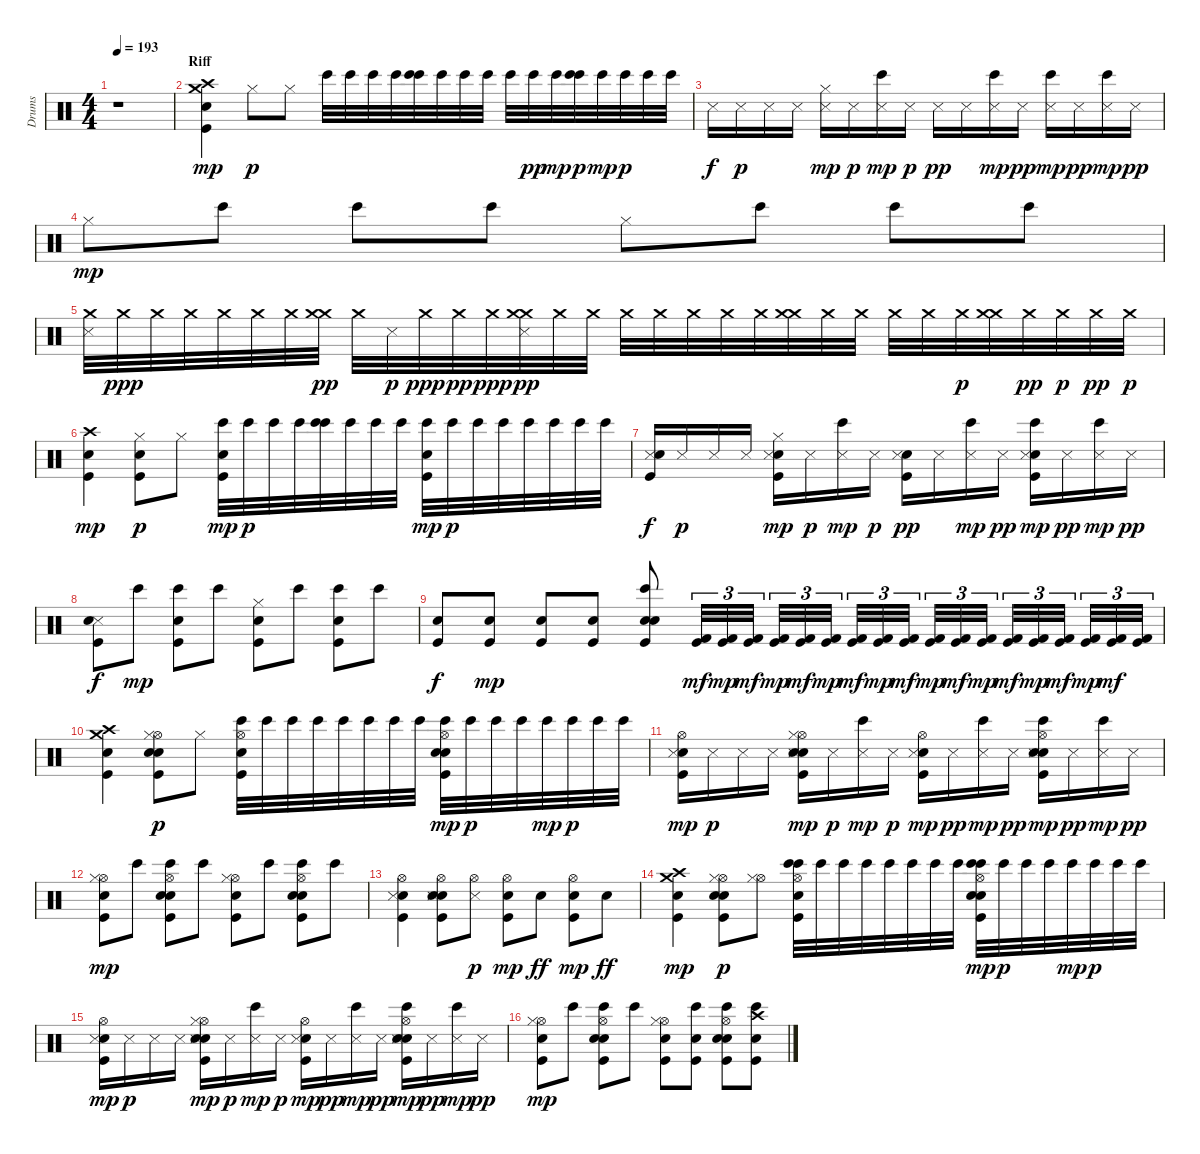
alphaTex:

\track ("Drums" "Drums") {instrument percussion}
\staff {score}
\articulation defaults
\ts (4 4)
\tempo 193
\clef neutral
\ks c
r.1{dy mp} |
\section ("" "Riff")
("Crash high (hit)" "Crash medium (hit)" "Kick (hit)" "Snare (hit) 2").4{balance 8} "Hi-Hat (closed)".8{dy p} "Hi-Hat (closed)".8 "Bongo High (hit)".32 "Bongo High (hit)".32 "Bongo High (hit)".32 "Bongo High (hit)".32 ("Bongo High (hit)" "Bongo High (hit)").32 "Bongo High (hit)".32 "Bongo High (hit)".32 "Bongo High (hit)".32 "Bongo High (hit)".32 "Bongo High (hit)".32{dy pp} "Bongo High (hit)".32{dy mp} ("Bongo High (hit)" "Bongo High (hit)").32{dy p} "Bongo High (hit)".32{dy mp} "Bongo High (hit)".32{dy p} "Bongo High (hit)".32 "Bongo High (hit)".32 |
"Snare (side stick) 3".16{dy f} "Snare (side stick) 3".16{dy p} "Snare (side stick) 3".16 "Snare (side stick) 3".16 ("Snare (side stick) 3" "Hi-Hat (closed)").16{dy mp} "Snare (side stick) 3".16{dy p} ("Snare (side stick) 3" "Bongo High (hit)").16{dy mp} "Snare (side stick) 3".16{dy p} "Snare (side stick) 3".16{dy pp} "Snare (side stick) 3".16 ("Snare (side stick) 3" "Bongo High (hit)").16{dy mp} "Snare (side stick) 3".16{dy pp} ("Snare (side stick) 3" "Bongo High (hit)").16{dy mp} "Snare (side stick) 3".16{dy pp} ("Snare (side stick) 3" "Bongo High (hit)").16{dy mp} "Snare (side stick) 3".16{dy pp} |
"Hi-Hat (closed)".8{dy mp} "Bongo High (hit)".8 "Bongo High (hit)".8 "Bongo High (hit)".8 "Hi-Hat (closed)".8 "Bongo High (hit)".8 "Bongo High (hit)".8 "Bongo High (hit)".8 |
("Snare (side stick) 3" "Crash medium (hit)").32 "Crash medium (hit)".32{dy ppp} "Crash medium (hit)".32 "Crash medium (hit)".32 "Crash medium (hit)".32 "Crash medium (hit)".32 "Crash medium (hit)".32 ("Crash medium (hit)" "Crash medium (hit)").32{dy pp} "Crash medium (hit)".32 "Snare (side stick) 3".32{dy p} "Crash medium (hit)".32{dy ppp} "Crash medium (hit)".32{dy pp} "Crash medium (hit)".32{dy ppp} ("Snare (side stick) 3" "Crash medium (hit)" "Crash medium (hit)").32{dy pp} "Crash medium (hit)".32 "Crash medium (hit)".32 "Crash medium (hit)".32 "Crash medium (hit)".32 "Crash medium (hit)".32 "Crash medium (hit)".32 "Crash medium (hit)".32 ("Crash medium (hit)" "Crash medium (hit)").32 "Crash medium (hit)".32 "Crash medium (hit)".32 "Crash medium (hit)".32 "Crash medium (hit)".32 "Crash medium (hit)".32{dy p} ("Crash medium (hit)" "Crash medium (hit)").32 "Crash medium (hit)".32{dy pp} "Crash medium (hit)".32{dy p} "Crash medium (hit)".32{dy pp} "Crash medium (hit)".32{dy p} |
("Crash high (hit)" "Kick (hit)" "Snare (hit) 2").4{dy mp} ("Kick (hit)" "Snare (hit) 2" "Hi-Hat (closed)").8{dy p} "Hi-Hat (closed)".8 ("Kick (hit)" "Bongo High (hit)" "Snare (hit) 2").32{dy mp} "Bongo High (hit)".32{dy p} "Bongo High (hit)".32 "Bongo High (hit)".32 ("Bongo High (hit)" "Bongo High (hit)").32 "Bongo High (hit)".32 "Bongo High (hit)".32 "Bongo High (hit)".32 ("Kick (hit)" "Snare (hit) 2" "Bongo High (hit)").32{dy mp} "Bongo High (hit)".32{dy p} "Bongo High (hit)".32 "Bongo High (hit)".32 "Bongo High (hit)".32 "Bongo High (hit)".32 "Bongo High (hit)".32 "Bongo High (hit)".32 |
("Snare (side stick) 3" "Snare (hit) 2" "Kick (hit)").16{dy f} "Snare (side stick) 3".16{dy p} "Snare (side stick) 3".16 "Snare (side stick) 3".16 ("Kick (hit)" "Snare (hit) 2" "Snare (side stick) 3" "Hi-Hat (closed)").16{dy mp} "Snare (side stick) 3".16{dy p} ("Snare (side stick) 3" "Bongo High (hit)").16{dy mp} "Snare (side stick) 3".16{dy p} ("Kick (hit)" "Snare (hit) 2" "Snare (side stick) 3").16{dy pp} "Snare (side stick) 3".16 ("Snare (side stick) 3" "Bongo High (hit)").16{dy mp} "Snare (side stick) 3".16{dy pp} ("Kick (hit)" "Snare (hit) 2" "Snare (side stick) 3" "Bongo High (hit)").16{dy mp} "Snare (side stick) 3".16{dy pp} ("Snare (side stick) 3" "Bongo High (hit)").16{dy mp} "Snare (side stick) 3".16{dy pp} |
("Snare (side stick) 3" "Snare (hit) 2" "Kick (hit)").8{dy f} "Bongo High (hit)".8{dy mp} ("Kick (hit)" "Snare (hit) 2" "Bongo High (hit)").8 "Bongo High (hit)".8 ("Kick (hit)" "Snare (hit) 2" "Hi-Hat (closed)").8 "Bongo High (hit)".8 ("Kick (hit)" "Snare (hit) 2" "Bongo High (hit)").8 "Bongo High (hit)".8 |
("Kick (hit)" "Snare (hit) 2").8{dy f} ("Kick (hit)" "Snare (hit) 2").8{dy mp} ("Kick (hit)" "Snare (hit) 2").8 ("Kick (hit)" "Snare (hit) 2").8 ("Hand Clap (hit)" "Bongo High (hit)" "Kick (hit)" "Snare (hit) 2").8 ("Kick (hit) 2" "Kick (hit)").32{tu (3 2) dy mf} ("Kick (hit) 2" "Kick (hit)").32{tu (3 2) dy mp} ("Kick (hit) 2" "Kick (hit)").32{tu (3 2) dy mf} ("Kick (hit) 2" "Kick (hit)").32{tu (3 2) dy mp} ("Kick (hit) 2" "Kick (hit)").32{tu (3 2) dy mf} ("Kick (hit) 2" "Kick (hit)").32{tu (3 2) dy mp} ("Kick (hit) 2" "Kick (hit)").32{tu (3 2) dy mf} ("Kick (hit) 2" "Kick (hit)").32{tu (3 2) dy mp} ("Kick (hit) 2" "Kick (hit)").32{tu (3 2) dy mf} ("Kick (hit) 2" "Kick (hit)").32{tu (3 2) dy mp} ("Kick (hit) 2" "Kick (hit)").32{tu (3 2) dy mf} ("Kick (hit) 2" "Kick (hit)").32{tu (3 2) dy mp} ("Kick (hit) 2" "Kick (hit)").32{tu (3 2) dy mf} ("Kick (hit) 2" "Kick (hit)").32{tu (3 2) dy mp} ("Kick (hit) 2" "Kick (hit)").32{tu (3 2) dy mf} ("Kick (hit) 2" "Kick (hit)").32{tu (3 2) dy mp} ("Kick (hit) 2" "Kick (hit)").32{tu (3 2) dy mf} ("Kick (hit) 2" "Kick (hit)").32{tu (3 2)} |
("Crash high (hit)" "Crash medium (hit)" "Kick (hit)" "Snare (hit) 2").4 ("Kick (hit)" "Snare (hit) 2" "Electric Snare (hit)" "Hi-Hat (open)" "Hi-Hat (closed)").8{dy p} "Hi-Hat (closed)".8 ("Kick (hit)" "Hi-Hat (open)" "Snare (hit) 2" "Bongo High (hit)").32 "Bongo High (hit)".32 "Bongo High (hit)".32 "Bongo High (hit)".32 "Bongo High (hit)".32 "Bongo High (hit)".32 "Bongo High (hit)".32 "Bongo High (hit)".32 ("Kick (hit)" "Snare (hit) 2" "Electric Snare (hit)" "Hi-Hat (open)" "Bongo High (hit)").32{dy mp} "Bongo High (hit)".32{dy p} "Bongo High (hit)".32 "Bongo High (hit)".32 "Bongo High (hit)".32{dy mp} "Bongo High (hit)".32{dy p} "Bongo High (hit)".32 "Bongo High (hit)".32 |
("Kick (hit)" "Snare (hit) 2" "Snare (side stick) 3" "Hi-Hat (open)").16{dy mp} "Snare (side stick) 3".16{dy p} "Snare (side stick) 3".16 "Snare (side stick) 3".16 ("Kick (hit)" "Snare (hit) 2" "Electric Snare (hit)" "Snare (side stick) 3" "Hi-Hat (open)" "Hi-Hat (closed)").16{dy mp} "Snare (side stick) 3".16{dy p} ("Snare (side stick) 3" "Bongo High (hit)").16{dy mp} "Snare (side stick) 3".16{dy p} ("Kick (hit)" "Snare (hit) 2" "Snare (side stick) 3" "Hi-Hat (open)").16{dy mp} "Snare (side stick) 3".16{dy pp} ("Snare (side stick) 3" "Bongo High (hit)").16{dy mp} "Snare (side stick) 3".16{dy pp} ("Kick (hit)" "Snare (hit) 2" "Electric Snare (hit)" "Snare (side stick) 3" "Hi-Hat (open)" "Bongo High (hit)").16{dy mp} "Snare (side stick) 3".16{dy pp} ("Snare (side stick) 3" "Bongo High (hit)").16{dy mp} "Snare (side stick) 3".16{dy pp} |
("Kick (hit)" "Snare (hit) 2" "Hi-Hat (open)" "Hi-Hat (closed)").8{dy mp} "Bongo High (hit)".8 ("Kick (hit)" "Snare (hit) 2" "Electric Snare (hit)" "Hi-Hat (open)" "Bongo High (hit)").8 "Bongo High (hit)".8 ("Kick (hit)" "Snare (hit) 2" "Hi-Hat (open)" "Hi-Hat (closed)").8 "Bongo High (hit)".8 ("Kick (hit)" "Snare (hit) 2" "Electric Snare (hit)" "Hi-Hat (open)" "Bongo High (hit)").8 "Bongo High (hit)".8 |
("Kick (hit)" "Snare (hit) 2" "Snare (side stick) 3" "Hi-Hat (open)").4 ("Kick (hit)" "Snare (hit) 2" "Electric Snare (hit)" "Snare (side stick) 3" "Hi-Hat (open)").8 ("Snare (side stick) 3" "Hi-Hat (open)").8{dy p} ("Kick (hit)" "Snare (hit) 2" "Hi-Hat (open)").8{dy mp} "Electric Snare (hit)".8{dy ff} ("Kick (hit)" "Snare (hit) 2" "Hi-Hat (open)").8{dy mp} "Electric Snare (hit)".8{dy ff} |
("Crash high (hit)" "Crash medium (hit)" "Kick (hit)" "Snare (hit) 2").4{dy mp} ("Kick (hit)" "Snare (hit) 2" "Electric Snare (hit)" "Hi-Hat (open)" "Hi-Hat (closed)").8{dy p} ("Hi-Hat (open)" "Hi-Hat (closed)").8 ("Kick (hit)" "Hi-Hat (open)" "Snare (hit) 2" "Bongo High (hit)" "Bongo High (hit)").32 "Bongo High (hit)".32 "Bongo High (hit)".32 "Bongo High (hit)".32 "Bongo High (hit)".32 "Bongo High (hit)".32 "Bongo High (hit)".32 "Bongo High (hit)".32 ("Bongo High (hit)" "Kick (hit)" "Snare (hit) 2" "Electric Snare (hit)" "Hi-Hat (open)" "Bongo High (hit)").32{dy mp} "Bongo High (hit)".32{dy p} "Bongo High (hit)".32 "Bongo High (hit)".32 "Bongo High (hit)".32{dy mp} "Bongo High (hit)".32{dy p} "Bongo High (hit)".32 "Bongo High (hit)".32 |
("Kick (hit)" "Snare (hit) 2" "Snare (side stick) 3" "Hi-Hat (open)").16{dy mp} "Snare (side stick) 3".16{dy p} "Snare (side stick) 3".16 "Snare (side stick) 3".16 ("Kick (hit)" "Snare (hit) 2" "Electric Snare (hit)" "Snare (side stick) 3" "Hi-Hat (open)" "Hi-Hat (closed)").16{dy mp} "Snare (side stick) 3".16{dy p} ("Snare (side stick) 3" "Bongo High (hit)").16{dy mp} "Snare (side stick) 3".16{dy p} ("Kick (hit)" "Snare (hit) 2" "Snare (side stick) 3" "Hi-Hat (open)").16{dy mp} "Snare (side stick) 3".16{dy pp} ("Snare (side stick) 3" "Bongo High (hit)").16{dy mp} "Snare (side stick) 3".16{dy pp} ("Kick (hit)" "Snare (hit) 2" "Electric Snare (hit)" "Snare (side stick) 3" "Hi-Hat (open)" "Bongo High (hit)").16{dy mp} "Snare (side stick) 3".16{dy pp} ("Snare (side stick) 3" "Bongo High (hit)").16{dy mp} "Snare (side stick) 3".16{dy pp} |
("Kick (hit)" "Snare (hit) 2" "Hi-Hat (open)" "Hi-Hat (closed)").8{dy mp} "Bongo High (hit)".8 ("Kick (hit)" "Snare (hit) 2" "Electric Snare (hit)" "Hi-Hat (open)" "Bongo High (hit)").8 "Bongo High (hit)".8 ("Kick (hit)" "Snare (hit) 2" "Hi-Hat (open)" "Hi-Hat (closed)").8 ("Kick (hit)" "Snare (hit) 2" "Bongo High (hit)").8 ("Kick (hit)" "Snare (hit) 2" "Electric Snare (hit)" "Hi-Hat (open)" "Bongo High (hit)").8 ("Crash high (hit)" "Kick (hit)" "Snare (hit) 2" "Bongo High (hit)").8
